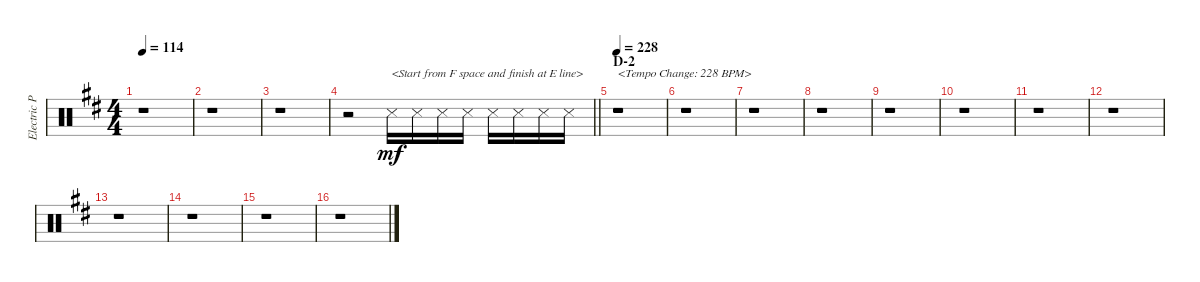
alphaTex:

\track ("Electric Percussion" "Electric P") {instrument percussion}
\staff {score}
\articulation defaults
\ts (4 4)
\tempo 114
\clef neutral
\ks d
r.1{dy mf} |
r.1 |
r.1 |
\barLineRight lightlight
r.2 "Snare (side stick) 3".16{txt "<Start from F space and finish at E line>"} "Snare (side stick) 3".16 "Snare (side stick) 3".16 "Snare (side stick) 3".16 "Snare (side stick) 3".16 "Snare (side stick) 3".16 "Snare (side stick) 3".16 "Snare (side stick) 3".16 |
\section ("" "D-2")
\tempo 228
r.1{txt "<Tempo Change: 228 BPM>"} |
r.1 |
r.1 |
r.1 |
r.1 |
r.1 |
r.1 |
r.1 |
r.1 |
r.1 |
r.1 |
r.1
